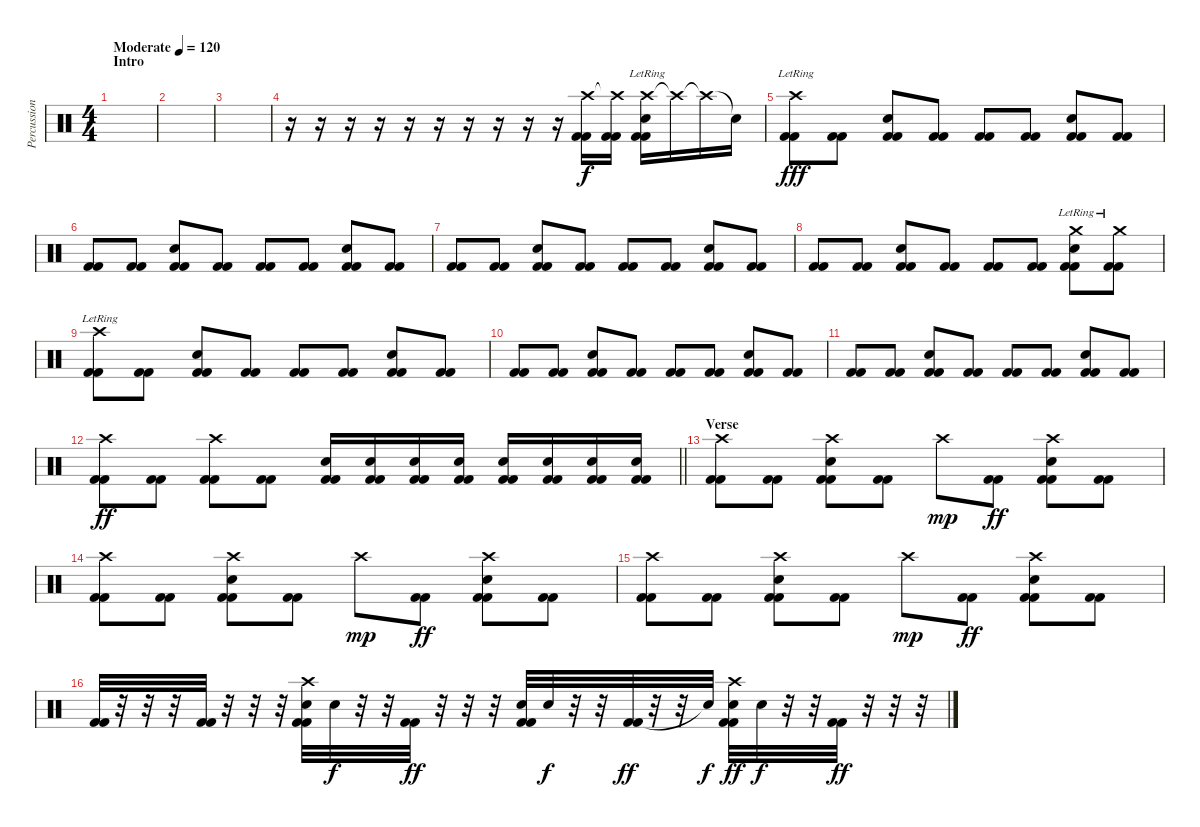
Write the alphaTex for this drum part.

\track ("Percussion" "Percussion") {instrument percussion}
\staff {score}
\articulation defaults
\ts (4 4)
\section ("" "Intro")
\tempo (120 "Moderate")
\tempo 150
\tempo (120 "Moderate")
\clef neutral
\ks c
|
|
|
r.16 r.16 r.16 r.16 r.16 r.16 r.16 r.16 r.16 r.16 ("Crash high (hit)" "Kick (hit) 2" "Kick (hit) 2").16 ("Crash high (hit)"{t} "Kick (hit) 2" "Kick (hit) 2").16 ("Crash high (hit)"{lr} "Snare (hit) 2" "Kick (hit) 2" "Kick (hit) 2").16 "Crash high (hit)"{t}.16{dy f} "Crash high (hit)"{t}.16 "Snare (hit)"{t}.16 |
("Crash high (hit)"{lr} "Kick (hit) 2" "Kick (hit) 2").8{dy fff} ("Kick (hit) 2" "Kick (hit) 2").8 ("Snare (hit) 2" "Kick (hit) 2" "Kick (hit) 2").8 ("Kick (hit) 2" "Kick (hit) 2").8 ("Kick (hit) 2" "Kick (hit) 2").8 ("Kick (hit) 2" "Kick (hit) 2").8 ("Snare (hit) 2" "Kick (hit) 2" "Kick (hit) 2").8 ("Kick (hit) 2" "Kick (hit) 2").8 |
("Kick (hit) 2" "Kick (hit) 2").8 ("Kick (hit) 2" "Kick (hit) 2").8 ("Snare (hit) 2" "Kick (hit) 2" "Kick (hit) 2").8 ("Kick (hit) 2" "Kick (hit) 2").8 ("Kick (hit) 2" "Kick (hit) 2").8 ("Kick (hit) 2" "Kick (hit) 2").8 ("Snare (hit) 2" "Kick (hit) 2" "Kick (hit) 2").8 ("Kick (hit) 2" "Kick (hit) 2").8 |
("Kick (hit) 2" "Kick (hit) 2").8 ("Kick (hit) 2" "Kick (hit) 2").8 ("Snare (hit) 2" "Kick (hit) 2" "Kick (hit) 2").8 ("Kick (hit) 2" "Kick (hit) 2").8 ("Kick (hit) 2" "Kick (hit) 2").8 ("Kick (hit) 2" "Kick (hit) 2").8 ("Snare (hit) 2" "Kick (hit) 2" "Kick (hit) 2").8 ("Kick (hit) 2" "Kick (hit) 2").8 |
("Kick (hit) 2" "Kick (hit) 2").8 ("Kick (hit) 2" "Kick (hit) 2").8 ("Snare (hit) 2" "Kick (hit) 2" "Kick (hit) 2").8 ("Kick (hit) 2" "Kick (hit) 2").8 ("Kick (hit) 2" "Kick (hit) 2").8 ("Kick (hit) 2" "Kick (hit) 2").8 ("Crash medium (hit)"{lr} "Snare (hit) 2" "Kick (hit) 2" "Kick (hit) 2").8 ("Crash medium (hit)"{lr} "Kick (hit) 2" "Kick (hit) 2").8 |
("Crash high (hit)"{lr} "Kick (hit) 2" "Kick (hit) 2").8 ("Kick (hit) 2" "Kick (hit) 2").8 ("Snare (hit) 2" "Kick (hit) 2" "Kick (hit) 2").8 ("Kick (hit) 2" "Kick (hit) 2").8 ("Kick (hit) 2" "Kick (hit) 2").8 ("Kick (hit) 2" "Kick (hit) 2").8 ("Snare (hit) 2" "Kick (hit) 2" "Kick (hit) 2").8 ("Kick (hit) 2" "Kick (hit) 2").8 |
("Kick (hit) 2" "Kick (hit) 2").8 ("Kick (hit) 2" "Kick (hit) 2").8 ("Snare (hit) 2" "Kick (hit) 2" "Kick (hit) 2").8 ("Kick (hit) 2" "Kick (hit) 2").8 ("Kick (hit) 2" "Kick (hit) 2").8 ("Kick (hit) 2" "Kick (hit) 2").8 ("Snare (hit) 2" "Kick (hit) 2" "Kick (hit) 2").8 ("Kick (hit) 2" "Kick (hit) 2").8 |
("Kick (hit) 2" "Kick (hit) 2").8 ("Kick (hit) 2" "Kick (hit) 2").8 ("Snare (hit) 2" "Kick (hit) 2" "Kick (hit) 2").8 ("Kick (hit) 2" "Kick (hit) 2").8 ("Kick (hit) 2" "Kick (hit) 2").8 ("Kick (hit) 2" "Kick (hit) 2").8 ("Snare (hit) 2" "Kick (hit) 2" "Kick (hit) 2").8 ("Kick (hit) 2" "Kick (hit) 2").8 |
\barLineRight lightlight
("Crash high (hit)" "Kick (hit) 2" "Kick (hit) 2").8{dy ff} ("Kick (hit) 2" "Kick (hit) 2").8 ("Crash high (hit)" "Kick (hit) 2" "Kick (hit) 2").8 ("Kick (hit) 2" "Kick (hit) 2").8 ("Snare (hit) 2" "Kick (hit) 2" "Kick (hit) 2").16 ("Snare (hit) 2" "Kick (hit) 2" "Kick (hit) 2").16 ("Snare (hit) 2" "Kick (hit) 2" "Kick (hit) 2").16 ("Snare (hit) 2" "Kick (hit) 2" "Kick (hit) 2").16 ("Snare (hit) 2" "Kick (hit) 2" "Kick (hit) 2").16 ("Snare (hit) 2" "Kick (hit) 2" "Kick (hit) 2").16 ("Snare (hit) 2" "Kick (hit) 2" "Kick (hit) 2").16 ("Snare (hit) 2" "Kick (hit) 2" "Kick (hit) 2").16 |
\section ("" "Verse")
("Crash high (hit)" "Kick (hit) 2" "Kick (hit) 2").8 ("Kick (hit) 2" "Kick (hit) 2").8 ("Crash high (hit)" "Snare (hit) 2" "Kick (hit) 2" "Kick (hit) 2").8 ("Kick (hit) 2" "Kick (hit) 2").8 "Crash high (hit)".8{dy mp} ("Kick (hit) 2" "Kick (hit) 2").8{dy ff} ("Crash high (hit)" "Snare (hit) 2" "Kick (hit) 2" "Kick (hit) 2").8 ("Kick (hit) 2" "Kick (hit) 2").8 |
("Crash high (hit)" "Kick (hit) 2" "Kick (hit) 2").8 ("Kick (hit) 2" "Kick (hit) 2").8 ("Crash high (hit)" "Snare (hit) 2" "Kick (hit) 2" "Kick (hit) 2").8 ("Kick (hit) 2" "Kick (hit) 2").8 "Crash high (hit)".8{dy mp} ("Kick (hit) 2" "Kick (hit) 2").8{dy ff} ("Crash high (hit)" "Snare (hit) 2" "Kick (hit) 2" "Kick (hit) 2").8 ("Kick (hit) 2" "Kick (hit) 2").8 |
("Crash high (hit)" "Kick (hit) 2" "Kick (hit) 2").8 ("Kick (hit) 2" "Kick (hit) 2").8 ("Crash high (hit)" "Snare (hit) 2" "Kick (hit) 2" "Kick (hit) 2").8 ("Kick (hit) 2" "Kick (hit) 2").8 "Crash high (hit)".8{dy mp} ("Kick (hit) 2" "Kick (hit) 2").8{dy ff} ("Crash high (hit)" "Snare (hit) 2" "Kick (hit) 2" "Kick (hit) 2").8 ("Kick (hit) 2" "Kick (hit) 2").8 |
("Kick (hit) 2" "Kick (hit) 2").32 r.32 r.32 r.32 ("Kick (hit) 2" "Kick (hit) 2").32 r.32 r.32 r.32 ("Crash high (hit)" "Snare (hit) 2" "Kick (hit) 2" "Kick (hit) 2").32 "Snare (hit) 2".32{dy f} r.32 r.32 ("Kick (hit) 2" "Kick (hit) 2").32{dy ff} r.32 r.32 r.32 ("Snare (hit) 2" "Kick (hit) 2" "Kick (hit) 2").32 "Snare (hit) 2".32{dy f} r.32 r.32 ("Kick (hit) 2" "Kick (hit) 2").32{dy ff} r.32 r.32 "Snare (hit)"{t}.32{dy f} ("Crash high (hit)" "Snare (hit) 2" "Kick (hit) 2" "Kick (hit) 2").32{dy ff} "Snare (hit) 2".32{dy f} r.32 r.32 ("Kick (hit) 2" "Kick (hit) 2").32{dy ff} r.32 r.32 r.32
